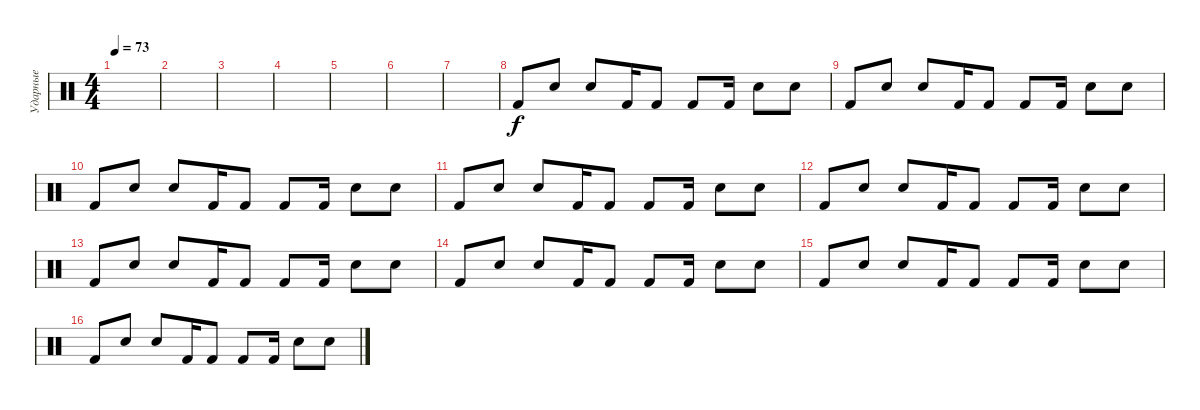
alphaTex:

\track ("Ударные" "Ударные") {instrument percussion}
\staff {score}
\articulation defaults
\ts (4 4)
\tempo 73
\clef neutral
\ks c
|
|
|
|
|
|
|
"Kick (hit) 2".8 "Snare (hit)".8 "Snare (hit) 2".8 "Kick (hit) 2".16 "Kick (hit) 2".8 "Kick (hit) 2".8 "Kick (hit) 2".16 "Snare (hit) 2".8 "Snare (hit)".8 |
"Kick (hit) 2".8 "Snare (hit)".8 "Snare (hit) 2".8 "Kick (hit) 2".16 "Kick (hit) 2".8 "Kick (hit) 2".8 "Kick (hit) 2".16 "Snare (hit) 2".8 "Snare (hit)".8 |
"Kick (hit) 2".8 "Snare (hit)".8 "Snare (hit) 2".8 "Kick (hit) 2".16 "Kick (hit) 2".8 "Kick (hit) 2".8 "Kick (hit) 2".16 "Snare (hit) 2".8 "Snare (hit)".8 |
"Kick (hit) 2".8 "Snare (hit)".8 "Snare (hit) 2".8 "Kick (hit) 2".16 "Kick (hit) 2".8 "Kick (hit) 2".8 "Kick (hit) 2".16 "Snare (hit) 2".8 "Snare (hit)".8 |
"Kick (hit) 2".8 "Snare (hit)".8 "Snare (hit) 2".8 "Kick (hit) 2".16 "Kick (hit) 2".8 "Kick (hit) 2".8 "Kick (hit) 2".16 "Snare (hit) 2".8 "Snare (hit)".8 |
"Kick (hit) 2".8 "Snare (hit)".8 "Snare (hit) 2".8 "Kick (hit) 2".16 "Kick (hit) 2".8 "Kick (hit) 2".8 "Kick (hit) 2".16 "Snare (hit) 2".8 "Snare (hit)".8 |
"Kick (hit) 2".8 "Snare (hit)".8 "Snare (hit) 2".8 "Kick (hit) 2".16 "Kick (hit) 2".8 "Kick (hit) 2".8 "Kick (hit) 2".16 "Snare (hit) 2".8 "Snare (hit)".8 |
"Kick (hit) 2".8 "Snare (hit)".8 "Snare (hit) 2".8 "Kick (hit) 2".16 "Kick (hit) 2".8 "Kick (hit) 2".8 "Kick (hit) 2".16 "Snare (hit) 2".8 "Snare (hit)".8 |
"Kick (hit) 2".8 "Snare (hit)".8 "Snare (hit) 2".8 "Kick (hit) 2".16 "Kick (hit) 2".8 "Kick (hit) 2".8 "Kick (hit) 2".16 "Snare (hit) 2".8 "Snare (hit)".8
